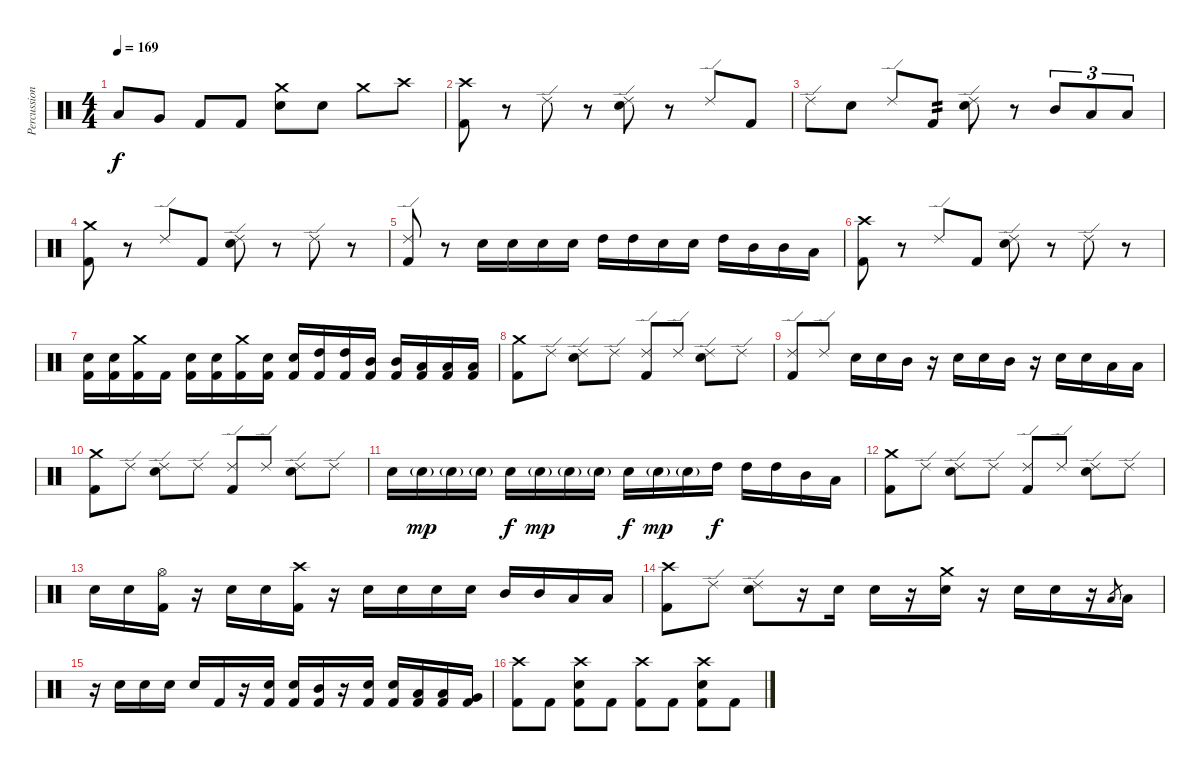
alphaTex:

\track ("Percussion" "Percussion") {instrument percussion}
\staff {score}
\articulation defaults
\ts (4 4)
\tempo 169
\clef neutral
\ks c "Low Tom (hit)".8{dy f} "Very Low Tom (hit)".8 "Kick (hit) 2".8 "Kick (hit) 2".8
("Crash medium (hit)" "Electric Snare (hit)").8 "Electric Snare (hit)".8 "Crash medium (hit)".8 "Crash high (hit)".8 |
("Crash high (hit)" "Kick (hit) 2").8 r.8 "Ride (edge) 2".8 r.8 ("Ride (edge) 2" "Electric Snare (hit)").8 r.8 "Ride (edge) 2".8 "Kick (hit) 2".8 |
"Ride (edge) 2".8 "Electric Snare (hit)".8 "Ride (edge) 2".8 "Kick (hit) 2".8{tp 2} ("Ride (edge) 2" "Electric Snare (hit)").8 r.8 "Mid Tom (hit)".8{tu (3 2)} "Low Tom (hit)".8{tu (3 2)} "Low Tom (hit)".8{tu (3 2)} |
("Crash medium (hit)" "Kick (hit) 2").8 r.8 "Ride (edge) 2".8 "Kick (hit) 2".8 ("Ride (edge) 2" "Electric Snare (hit)").8 r.8 "Ride (edge) 2".8 r.8 |
("Ride (edge) 2" "Kick (hit) 2").8 r.8 "Electric Snare (hit)".16 "Electric Snare (hit)".16 "Electric Snare (hit)".16 "Electric Snare (hit)".16 "High Tom (hit)".16 "High Tom (hit)".16 "Electric Snare (hit)".16 "Electric Snare (hit)".16 "High Tom (hit)".16 "Mid Tom (hit)".16 "Mid Tom (hit)".16 "Low Tom (hit)".16 |
("Crash high (hit)" "Kick (hit) 2").8 r.8 "Ride (edge) 2".8 "Kick (hit) 2".8 ("Ride (edge) 2" "Electric Snare (hit)").8 r.8 "Ride (edge) 2".8 r.8 |
("Electric Snare (hit)" "Kick (hit) 2").16 ("Electric Snare (hit)" "Kick (hit) 2").16 ("Crash medium (hit)" "Kick (hit) 2").16 "Kick (hit) 2".16 ("Electric Snare (hit)" "Kick (hit) 2").16 ("Electric Snare (hit)" "Kick (hit) 2").16 ("Crash medium (hit)" "Kick (hit) 2").16 ("Electric Snare (hit)" "Kick (hit) 2").16 ("Electric Snare (hit)" "Kick (hit) 2").16 ("High Tom (hit)" "Kick (hit) 2").16 ("High Tom (hit)" "Kick (hit) 2").16 ("Mid Tom (hit)" "Kick (hit) 2").16 ("Mid Tom (hit)" "Kick (hit) 2").16 ("Low Tom (hit)" "Kick (hit) 2").16 ("Low Tom (hit)" "Kick (hit) 2").16 ("Low Tom (hit)" "Kick (hit) 2").16 |
("Crash medium (hit)" "Kick (hit) 2").8 "Ride (edge) 2".8 ("Ride (edge) 2" "Electric Snare (hit)").8 "Ride (edge) 2".8 ("Ride (edge) 2" "Kick (hit) 2").8 "Ride (edge) 2".8 ("Ride (edge) 2" "Electric Snare (hit)").8 "Ride (edge) 2".8 |
("Ride (edge) 2" "Kick (hit) 2").8 "Ride (edge) 2".8 "Electric Snare (hit)".16 "Electric Snare (hit)".16 "Mid Tom (hit)".16 r.16 "Electric Snare (hit)".16 "Electric Snare (hit)".16 "Mid Tom (hit)".16 r.16 "Electric Snare (hit)".16 "Electric Snare (hit)".16 "Low Tom (hit)".16 "Low Tom (hit)".16 |
("Crash medium (hit)" "Kick (hit) 2").8 "Ride (edge) 2".8 ("Ride (edge) 2" "Electric Snare (hit)").8 "Ride (edge) 2".8 ("Ride (edge) 2" "Kick (hit) 2").8 "Ride (edge) 2".8 ("Ride (edge) 2" "Electric Snare (hit)").8 "Ride (edge) 2".8 |
"Electric Snare (hit)".16 "Electric Snare (hit)"{g}.16{dy mp} "Electric Snare (hit)"{g}.16 "Electric Snare (hit)"{g}.16 "Electric Snare (hit)".16{dy f} "Electric Snare (hit)"{g}.16{dy mp} "Electric Snare (hit)"{g}.16 "Electric Snare (hit)"{g}.16 "Electric Snare (hit)".16{dy f} "Electric Snare (hit)"{g}.16{dy mp} "Electric Snare (hit)"{g}.16 "High Tom (hit)".16{dy f} "High Tom (hit)".16 "High Tom (hit)".16 "Mid Tom (hit)".16 "Low Tom (hit)".16 |
("Crash medium (hit)" "Kick (hit) 2").8 "Ride (edge) 2".8 ("Ride (edge) 2" "Electric Snare (hit)").8 "Ride (edge) 2".8 ("Ride (edge) 2" "Kick (hit) 2").8 "Ride (edge) 2".8 ("Ride (edge) 2" "Electric Snare (hit)").8 "Ride (edge) 2".8 |
"Electric Snare (hit)".16 "Electric Snare (hit)".16 ("Hi-Hat (open)" "Kick (hit) 2").16 r.16 "Electric Snare (hit)".16 "Electric Snare (hit)".16 ("Crash high (hit)" "Kick (hit) 2").16 r.16 "Electric Snare (hit)".16 "Electric Snare (hit)".16 "Electric Snare (hit)".16 "Electric Snare (hit)".16 "Mid Tom (hit)".16 "Mid Tom (hit)".16 "Low Tom (hit)".16 "Low Tom (hit)".16 |
("Crash high (hit)" "Kick (hit) 2").8 "Ride (edge) 2".8 ("Ride (edge) 2" "Electric Snare (hit)").8 r.16 "Electric Snare (hit)".16 "Electric Snare (hit)".16 r.16 ("Crash medium (hit)" "Electric Snare (hit)").16 r.16 "Electric Snare (hit)".16 "Electric Snare (hit)".16 r.16 "Low Tom (hit)".8{gr} "Low Tom (hit)".16 |
r.16 "Electric Snare (hit)".16 "Electric Snare (hit)".16 "Electric Snare (hit)".16 "Electric Snare (hit)".16 "Kick (hit) 2".16 r.16 ("Electric Snare (hit)" "Kick (hit) 2").16 ("Electric Snare (hit)" "Kick (hit) 2").16 ("Mid Tom (hit)" "Kick (hit) 2").16 r.16 ("Electric Snare (hit)" "Kick (hit) 2").16 ("Electric Snare (hit)" "Kick (hit) 2").16 ("Low Tom (hit)" "Kick (hit) 2").16 ("Low Tom (hit)" "Kick (hit) 2").16 ("Very Low Tom (hit)" "Kick (hit) 2").16 |
("Crash high (hit)" "Kick (hit) 2").8 "Kick (hit) 2".8 ("Crash high (hit)" "Electric Snare (hit)" "Kick (hit) 2").8 "Kick (hit) 2".8 ("Crash high (hit)" "Kick (hit) 2").8 "Kick (hit) 2".8 ("Crash high (hit)" "Electric Snare (hit)" "Kick (hit) 2").8 "Kick (hit) 2".8
